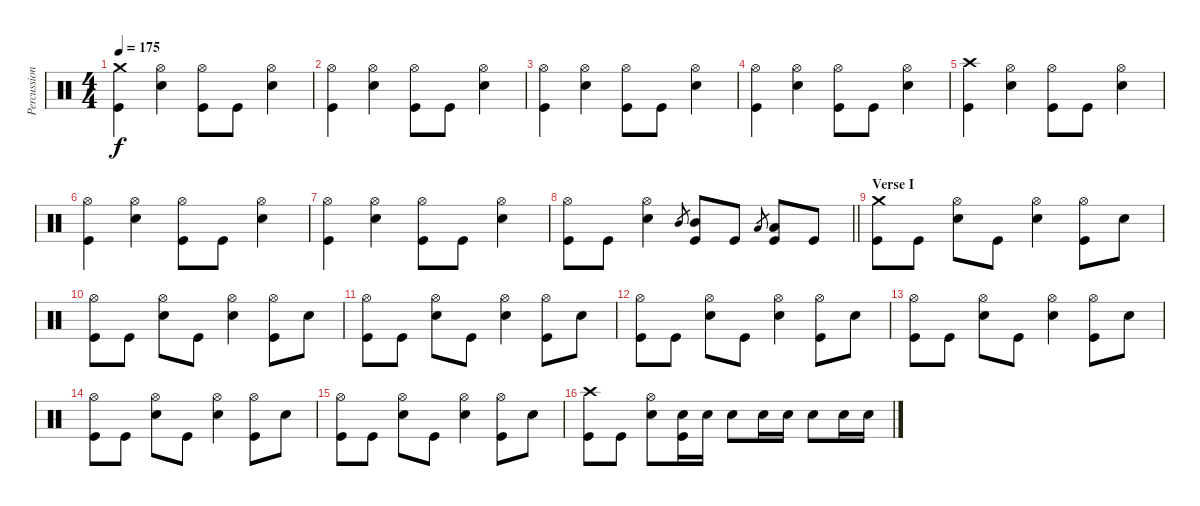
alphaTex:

\track ("Percussion" "Percussion") {instrument percussion}
\staff {score}
\articulation defaults
\ts (4 4)
\tempo 175
\clef neutral
\ks c
("Crash medium (hit)" "Kick (hit)").4{dy f} ("Hi-Hat (open)" "Electric Snare (hit)").4 ("Hi-Hat (open)" "Kick (hit)").8 "Kick (hit)".8 ("Hi-Hat (open)" "Electric Snare (hit)").4 |
("Hi-Hat (open)" "Kick (hit)").4 ("Hi-Hat (open)" "Electric Snare (hit)").4 ("Hi-Hat (open)" "Kick (hit)").8 "Kick (hit)".8 ("Hi-Hat (open)" "Electric Snare (hit)").4 |
("Hi-Hat (open)" "Kick (hit)").4 ("Hi-Hat (open)" "Electric Snare (hit)").4 ("Hi-Hat (open)" "Kick (hit)").8 "Kick (hit)".8 ("Hi-Hat (open)" "Electric Snare (hit)").4 |
("Hi-Hat (open)" "Kick (hit)").4 ("Hi-Hat (open)" "Electric Snare (hit)").4 ("Hi-Hat (open)" "Kick (hit)").8 "Kick (hit)".8 ("Hi-Hat (open)" "Electric Snare (hit)").4 |
("Crash high (hit)" "Kick (hit)").4 ("Hi-Hat (open)" "Electric Snare (hit)").4 ("Hi-Hat (open)" "Kick (hit)").8 "Kick (hit)".8 ("Hi-Hat (open)" "Electric Snare (hit)").4 |
("Hi-Hat (open)" "Kick (hit)").4 ("Hi-Hat (open)" "Electric Snare (hit)").4 ("Hi-Hat (open)" "Kick (hit)").8 "Kick (hit)".8 ("Hi-Hat (open)" "Electric Snare (hit)").4 |
("Hi-Hat (open)" "Kick (hit)").4 ("Hi-Hat (open)" "Electric Snare (hit)").4 ("Hi-Hat (open)" "Kick (hit)").8 "Kick (hit)".8 ("Hi-Hat (open)" "Electric Snare (hit)").4 |
\barLineRight lightlight
("Hi-Hat (open)" "Kick (hit)").8 "Kick (hit)".8 ("Hi-Hat (open)" "Electric Snare (hit)").4 "Mid Tom (hit)".8{gr} ("Mid Tom (hit)" "Kick (hit)").8 "Kick (hit)".8 "Low Tom (hit)".8{gr} ("Low Tom (hit)" "Kick (hit)").8 "Kick (hit)".8 |
\section ("" "Verse I")
("Crash medium (hit)" "Kick (hit)").8 "Kick (hit)".8 ("Hi-Hat (open)" "Electric Snare (hit)").8 "Kick (hit)".8 ("Hi-Hat (open)" "Electric Snare (hit)").4 ("Hi-Hat (open)" "Kick (hit)").8 "Electric Snare (hit)".8 |
("Hi-Hat (open)" "Kick (hit)").8 "Kick (hit)".8 ("Hi-Hat (open)" "Electric Snare (hit)").8 "Kick (hit)".8 ("Hi-Hat (open)" "Electric Snare (hit)").4 ("Hi-Hat (open)" "Kick (hit)").8 "Electric Snare (hit)".8 |
("Hi-Hat (open)" "Kick (hit)").8 "Kick (hit)".8 ("Hi-Hat (open)" "Electric Snare (hit)").8 "Kick (hit)".8 ("Hi-Hat (open)" "Electric Snare (hit)").4 ("Hi-Hat (open)" "Kick (hit)").8 "Electric Snare (hit)".8 |
("Hi-Hat (open)" "Kick (hit)").8 "Kick (hit)".8 ("Hi-Hat (open)" "Electric Snare (hit)").8 "Kick (hit)".8 ("Hi-Hat (open)" "Electric Snare (hit)").4 ("Hi-Hat (open)" "Kick (hit)").8 "Electric Snare (hit)".8 |
("Hi-Hat (open)" "Kick (hit)").8 "Kick (hit)".8 ("Hi-Hat (open)" "Electric Snare (hit)").8 "Kick (hit)".8 ("Hi-Hat (open)" "Electric Snare (hit)").4 ("Hi-Hat (open)" "Kick (hit)").8 "Electric Snare (hit)".8 |
("Hi-Hat (open)" "Kick (hit)").8 "Kick (hit)".8 ("Hi-Hat (open)" "Electric Snare (hit)").8 "Kick (hit)".8 ("Hi-Hat (open)" "Electric Snare (hit)").4 ("Hi-Hat (open)" "Kick (hit)").8 "Electric Snare (hit)".8 |
("Hi-Hat (open)" "Kick (hit)").8 "Kick (hit)".8 ("Hi-Hat (open)" "Electric Snare (hit)").8 "Kick (hit)".8 ("Hi-Hat (open)" "Electric Snare (hit)").4 ("Hi-Hat (open)" "Kick (hit)").8 "Electric Snare (hit)".8 |
("Crash high (hit)" "Kick (hit)").8 "Kick (hit)".8 ("Hi-Hat (open)" "Electric Snare (hit)").8 ("Electric Snare (hit)" "Kick (hit)").16 "Electric Snare (hit)".16 "Electric Snare (hit)".8 "Electric Snare (hit)".16 "Electric Snare (hit)".16 "Electric Snare (hit)".8 "Electric Snare (hit)".16 "Electric Snare (hit)".16
